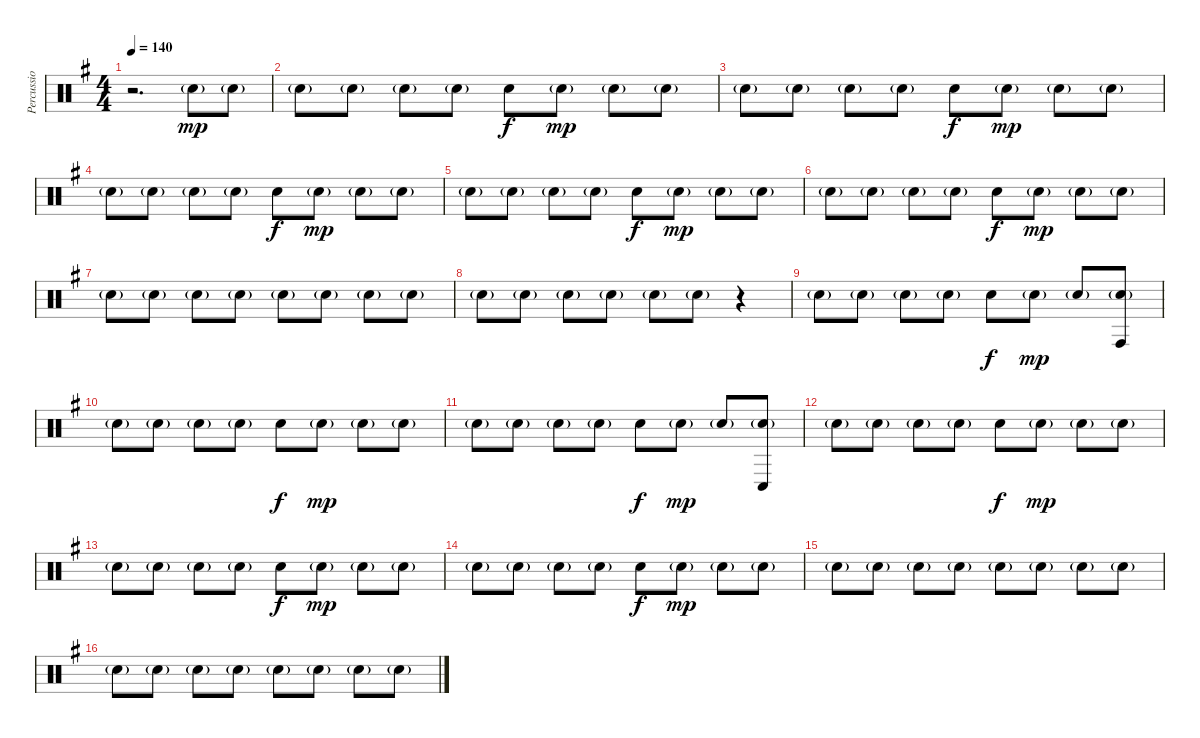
\track (" Percussion" " Percussio") {instrument percussion}
\staff {score}
\articulation defaults
\ts (4 4)
\tempo 140
\clef neutral
\ks g
r.2{d dy mp} "Snare (hit) 2"{g}.8 "Snare (hit) 2"{g}.8 |
"Snare (hit) 2"{g}.8 "Snare (hit) 2"{g}.8 "Snare (hit) 2"{g}.8 "Snare (hit) 2"{g}.8 "Snare (hit) 2".8{dy f} "Snare (hit) 2"{g}.8{dy mp} "Snare (hit) 2"{g}.8 "Snare (hit) 2"{g}.8 |
"Snare (hit) 2"{g}.8 "Snare (hit) 2"{g}.8 "Snare (hit) 2"{g}.8 "Snare (hit) 2"{g}.8 "Snare (hit) 2".8{dy f} "Snare (hit) 2"{g}.8{dy mp} "Snare (hit) 2"{g}.8 "Snare (hit) 2"{g}.8 |
"Snare (hit) 2"{g}.8 "Snare (hit) 2"{g}.8 "Snare (hit) 2"{g}.8 "Snare (hit) 2"{g}.8 "Snare (hit) 2".8{dy f} "Snare (hit) 2"{g}.8{dy mp} "Snare (hit) 2"{g}.8 "Snare (hit) 2"{g}.8 |
"Snare (hit) 2"{g}.8 "Snare (hit) 2"{g}.8 "Snare (hit) 2"{g}.8 "Snare (hit) 2"{g}.8 "Snare (hit) 2".8{dy f} "Snare (hit) 2"{g}.8{dy mp} "Snare (hit) 2"{g}.8 "Snare (hit) 2"{g}.8 |
"Snare (hit) 2"{g}.8 "Snare (hit) 2"{g}.8 "Snare (hit) 2"{g}.8 "Snare (hit) 2"{g}.8 "Snare (hit) 2".8{dy f} "Snare (hit) 2"{g}.8{dy mp} "Snare (hit) 2"{g}.8 "Snare (hit) 2"{g}.8 |
"Snare (hit) 2"{g}.8 "Snare (hit) 2"{g}.8 "Snare (hit) 2"{g}.8 "Snare (hit) 2"{g}.8 "Snare (hit) 2"{g}.8 "Snare (hit) 2"{g}.8 "Snare (hit) 2"{g}.8 "Snare (hit) 2"{g}.8 |
"Snare (hit) 2"{g}.8 "Snare (hit) 2"{g}.8 "Snare (hit) 2"{g}.8 "Snare (hit) 2"{g}.8 "Snare (hit) 2"{g}.8 "Snare (hit) 2"{g}.8 r.4 |
"Snare (hit) 2"{g}.8 "Snare (hit) 2"{g}.8 "Snare (hit) 2"{g}.8 "Snare (hit) 2"{g}.8 "Snare (hit) 2".8{dy f} "Snare (hit) 2"{g}.8{dy mp} "Snare (hit) 2"{g}.8 ("Conga high (hit)" "Snare (hit) 2"{g}).8 |
"Snare (hit) 2"{g}.8 "Snare (hit) 2"{g}.8 "Snare (hit) 2"{g}.8 "Snare (hit) 2"{g}.8 "Snare (hit) 2".8{dy f} "Snare (hit) 2"{g}.8{dy mp} "Snare (hit) 2"{g}.8 "Snare (hit) 2"{g}.8 |
"Snare (hit) 2"{g}.8 "Snare (hit) 2"{g}.8 "Snare (hit) 2"{g}.8 "Snare (hit) 2"{g}.8 "Snare (hit) 2".8{dy f} "Snare (hit) 2"{g}.8{dy mp} "Snare (hit) 2"{g}.8 ("Conga low (hit)" "Snare (hit) 2"{g}).8 |
"Snare (hit) 2"{g}.8 "Snare (hit) 2"{g}.8 "Snare (hit) 2"{g}.8 "Snare (hit) 2"{g}.8 "Snare (hit) 2".8{dy f} "Snare (hit) 2"{g}.8{dy mp} "Snare (hit) 2"{g}.8 "Snare (hit) 2"{g}.8 |
"Snare (hit) 2"{g}.8 "Snare (hit) 2"{g}.8 "Snare (hit) 2"{g}.8 "Snare (hit) 2"{g}.8 "Snare (hit) 2".8{dy f} "Snare (hit) 2"{g}.8{dy mp} "Snare (hit) 2"{g}.8 "Snare (hit) 2"{g}.8 |
"Snare (hit) 2"{g}.8 "Snare (hit) 2"{g}.8 "Snare (hit) 2"{g}.8 "Snare (hit) 2"{g}.8 "Snare (hit) 2".8{dy f} "Snare (hit) 2"{g}.8{dy mp} "Snare (hit) 2"{g}.8 "Snare (hit) 2"{g}.8 |
"Snare (hit) 2"{g}.8{volume 16} "Snare (hit) 2"{g}.8 "Snare (hit) 2"{g}.8 "Snare (hit) 2"{g}.8 "Snare (hit) 2"{g}.8 "Snare (hit) 2"{g}.8 "Snare (hit) 2"{g}.8 "Snare (hit) 2"{g}.8 |
"Snare (hit) 2"{g}.8 "Snare (hit) 2"{g}.8 "Snare (hit) 2"{g}.8 "Snare (hit) 2"{g}.8 "Snare (hit) 2"{g}.8 "Snare (hit) 2"{g}.8 "Snare (hit) 2"{g}.8 "Snare (hit) 2"{g}.8
